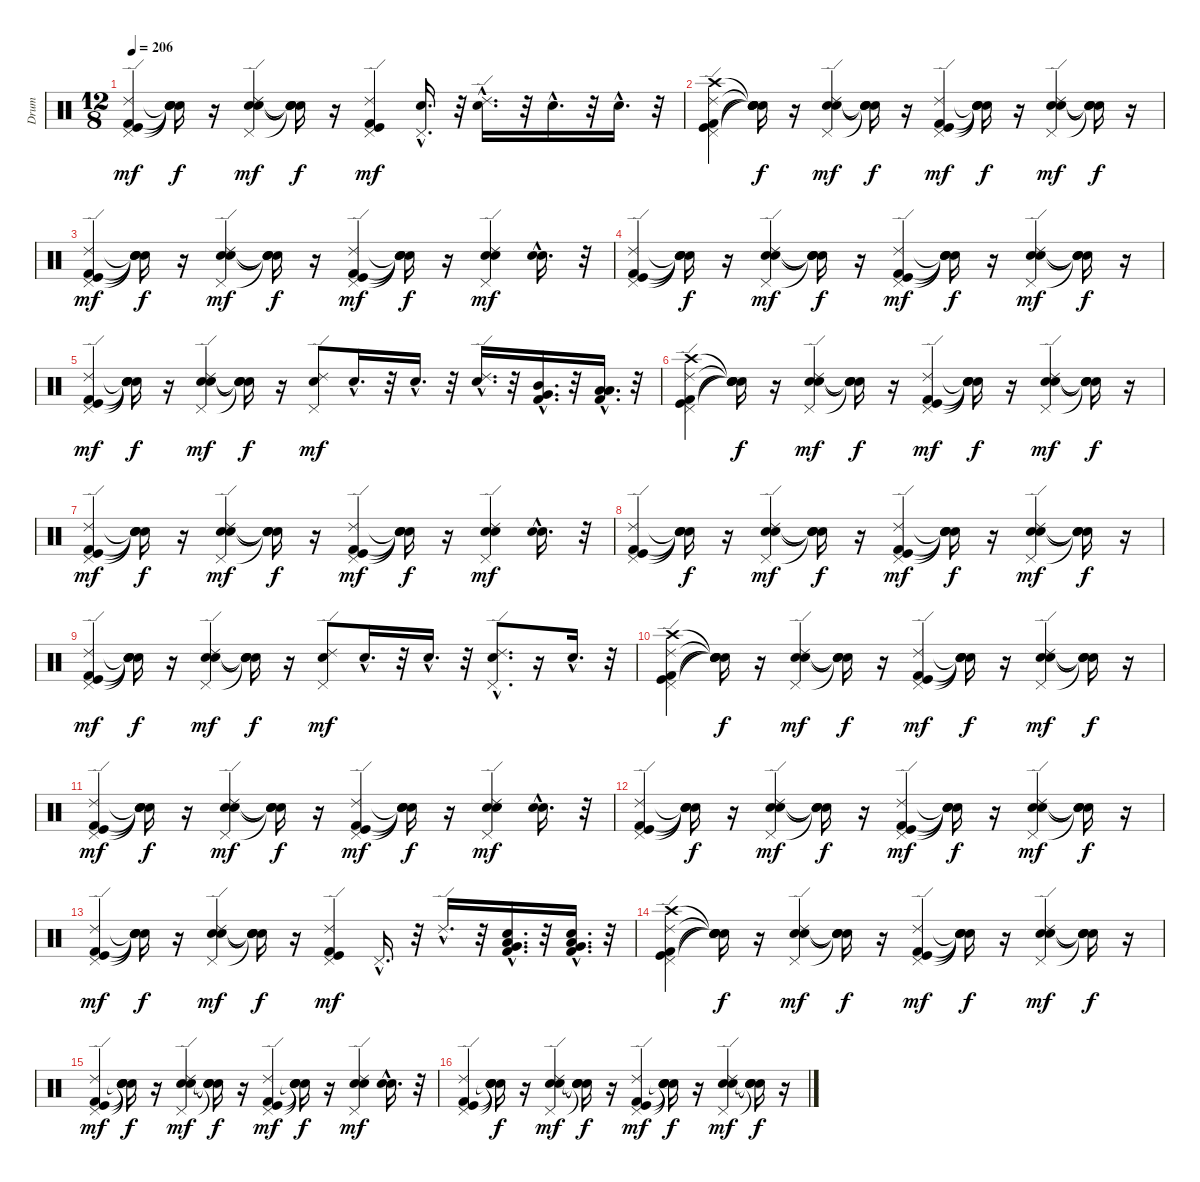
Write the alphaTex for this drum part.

\track ("Drum" "Drum") {instrument percussion}
\staff {score}
\articulation defaults
\ts (12 8)
\tempo 206
\clef neutral
\ks c
("Kick (hit)" "Kick (hit) 2" "Pedal Hi-Hat (hit)" "Ride (edge) 2").4{dy mf} ("Snare (hit)"{t} "Snare (hit)"{t} "Snare (hit)"{t} "Snare (hit)"{t}).16{dy f} r.16 ("Snare (hit) 2" "Pedal Hi-Hat (hit)" "Electric Snare (hit)" "Ride (edge) 2").4{dy mf} ("Snare (hit)"{t} "Snare (hit)"{t} "Snare (hit)"{t} "Snare (hit)"{t}).16{dy f} r.16 ("Kick (hit) 2" "Kick (hit)" "Pedal Hi-Hat (hit)" "Ride (edge) 2").4{dy mf} ("Snare (hit) 2"{hac} "Pedal Hi-Hat (hit)"{hac}).16{d} r.32 ("Snare (hit) 2"{hac} "Ride (edge) 2"{hac}).16{d} r.32 "Snare (hit) 2"{hac}.16{d} r.32 "Snare (hit) 2"{hac}.16{d} r.32 |
("Pedal Hi-Hat (hit)" "Crash high (hit)" "Kick (hit) 2" "Kick (hit)" "Ride (edge) 2").4 ("Snare (hit)"{t} "Snare (hit)"{t} "Snare (hit)"{t} "Snare (hit)"{t} "Snare (hit)"{t}).16{dy f} r.16 ("Electric Snare (hit)" "Snare (hit) 2" "Pedal Hi-Hat (hit)" "Ride (edge) 2").4{dy mf} ("Snare (hit)"{t} "Snare (hit)"{t} "Snare (hit)"{t} "Snare (hit)"{t}).16{dy f} r.16 ("Kick (hit) 2" "Pedal Hi-Hat (hit)" "Kick (hit)" "Ride (edge) 2").4{dy mf} ("Snare (hit)"{t} "Snare (hit)"{t} "Snare (hit)"{t} "Snare (hit)"{t}).16{dy f} r.16 ("Pedal Hi-Hat (hit)" "Electric Snare (hit)" "Snare (hit) 2" "Ride (edge) 2").4{dy mf} ("Snare (hit)"{t} "Snare (hit)"{t} "Snare (hit)"{t} "Snare (hit)"{t}).16{dy f} r.16 |
("Kick (hit) 2" "Kick (hit)" "Pedal Hi-Hat (hit)" "Ride (edge) 2").4{dy mf} ("Snare (hit)"{t} "Snare (hit)"{t} "Snare (hit)"{t} "Snare (hit)"{t}).16{dy f} r.16 ("Pedal Hi-Hat (hit)" "Electric Snare (hit)" "Snare (hit) 2" "Ride (edge) 2").4{dy mf} ("Snare (hit)"{t} "Snare (hit)"{t} "Snare (hit)"{t} "Snare (hit)"{t}).16{dy f} r.16 ("Kick (hit)" "Kick (hit) 2" "Pedal Hi-Hat (hit)" "Ride (edge) 2").4{dy mf} ("Snare (hit)"{t} "Snare (hit)"{t} "Snare (hit)"{t} "Snare (hit)"{t}).16{dy f} r.16 ("Pedal Hi-Hat (hit)" "Snare (hit) 2" "Electric Snare (hit)" "Ride (edge) 2").4{dy mf} ("Snare (hit) 2"{hac} "Electric Snare (hit)"{hac}).16{d} r.32 |
("Pedal Hi-Hat (hit)" "Kick (hit) 2" "Kick (hit)" "Ride (edge) 2").4 ("Snare (hit)"{t} "Snare (hit)"{t} "Snare (hit)"{t} "Snare (hit)"{t}).16{dy f} r.16 ("Snare (hit) 2" "Electric Snare (hit)" "Pedal Hi-Hat (hit)" "Ride (edge) 2").4{dy mf} ("Snare (hit)"{t} "Snare (hit)"{t} "Snare (hit)"{t} "Snare (hit)"{t}).16{dy f} r.16 ("Pedal Hi-Hat (hit)" "Kick (hit)" "Kick (hit) 2" "Ride (edge) 2").4{dy mf} ("Snare (hit)"{t} "Snare (hit)"{t} "Snare (hit)"{t} "Snare (hit)"{t}).16{dy f} r.16 ("Electric Snare (hit)" "Snare (hit) 2" "Pedal Hi-Hat (hit)" "Ride (edge) 2").4{dy mf} ("Snare (hit)"{t} "Snare (hit)"{t} "Snare (hit)"{t} "Snare (hit)"{t}).16{dy f} r.16 |
("Kick (hit)" "Kick (hit) 2" "Pedal Hi-Hat (hit)" "Ride (edge) 2").4{dy mf} ("Snare (hit)"{t} "Snare (hit)"{t} "Snare (hit)"{t} "Snare (hit)"{t}).16{dy f} r.16 ("Snare (hit) 2" "Pedal Hi-Hat (hit)" "Electric Snare (hit)" "Ride (edge) 2").4{dy mf} ("Snare (hit)"{t} "Snare (hit)"{t} "Snare (hit)"{t} "Snare (hit)"{t}).16{dy f} r.16 ("Snare (hit) 2" "Pedal Hi-Hat (hit)" "Ride (edge) 2").8{dy mf} "Snare (hit) 2"{hac}.16{d} r.32 "Snare (hit) 2"{hac}.16{d} r.32 ("Ride (edge) 2"{hac} "Snare (hit) 2"{hac}).16{d} r.32 ("Very Low Tom (hit)"{hac} "Mid Tom (hit)"{hac} "Kick (hit) 2"{hac}).16{d} r.32 ("Low Floor Tom (hit)"{hac} "Low Tom (hit)"{hac} "Kick (hit) 2"{hac}).16{d} r.32 |
("Ride (edge) 2" "Kick (hit)" "Kick (hit) 2" "Crash high (hit)" "Pedal Hi-Hat (hit)").4 ("Snare (hit)"{t} "Snare (hit)"{t} "Snare (hit)"{t} "Snare (hit)"{t} "Snare (hit)"{t}).16{dy f} r.16 ("Ride (edge) 2" "Pedal Hi-Hat (hit)" "Snare (hit) 2" "Electric Snare (hit)").4{dy mf} ("Snare (hit)"{t} "Snare (hit)"{t} "Snare (hit)"{t} "Snare (hit)"{t}).16{dy f} r.16 ("Ride (edge) 2" "Kick (hit)" "Pedal Hi-Hat (hit)" "Kick (hit) 2").4{dy mf} ("Snare (hit)"{t} "Snare (hit)"{t} "Snare (hit)"{t} "Snare (hit)"{t}).16{dy f} r.16 ("Ride (edge) 2" "Snare (hit) 2" "Electric Snare (hit)" "Pedal Hi-Hat (hit)").4{dy mf} ("Snare (hit)"{t} "Snare (hit)"{t} "Snare (hit)"{t} "Snare (hit)"{t}).16{dy f} r.16 |
("Ride (edge) 2" "Pedal Hi-Hat (hit)" "Kick (hit)" "Kick (hit) 2").4{dy mf} ("Snare (hit)"{t} "Snare (hit)"{t} "Snare (hit)"{t} "Snare (hit)"{t}).16{dy f} r.16 ("Ride (edge) 2" "Snare (hit) 2" "Electric Snare (hit)" "Pedal Hi-Hat (hit)").4{dy mf} ("Snare (hit)"{t} "Snare (hit)"{t} "Snare (hit)"{t} "Snare (hit)"{t}).16{dy f} r.16 ("Ride (edge) 2" "Pedal Hi-Hat (hit)" "Kick (hit) 2" "Kick (hit)").4{dy mf} ("Snare (hit)"{t} "Snare (hit)"{t} "Snare (hit)"{t} "Snare (hit)"{t}).16{dy f} r.16 ("Ride (edge) 2" "Electric Snare (hit)" "Snare (hit) 2" "Pedal Hi-Hat (hit)").4{dy mf} ("Electric Snare (hit)"{hac} "Snare (hit) 2"{hac}).16{d} r.32 |
("Ride (edge) 2" "Kick (hit)" "Kick (hit) 2" "Pedal Hi-Hat (hit)").4 ("Snare (hit)"{t} "Snare (hit)"{t} "Snare (hit)"{t} "Snare (hit)"{t}).16{dy f} r.16 ("Ride (edge) 2" "Pedal Hi-Hat (hit)" "Electric Snare (hit)" "Snare (hit) 2").4{dy mf} ("Snare (hit)"{t} "Snare (hit)"{t} "Snare (hit)"{t} "Snare (hit)"{t}).16{dy f} r.16 ("Ride (edge) 2" "Kick (hit) 2" "Kick (hit)" "Pedal Hi-Hat (hit)").4{dy mf} ("Snare (hit)"{t} "Snare (hit)"{t} "Snare (hit)"{t} "Snare (hit)"{t}).16{dy f} r.16 ("Ride (edge) 2" "Pedal Hi-Hat (hit)" "Snare (hit) 2" "Electric Snare (hit)").4{dy mf} ("Snare (hit)"{t} "Snare (hit)"{t} "Snare (hit)"{t} "Snare (hit)"{t}).16{dy f} r.16 |
("Kick (hit) 2" "Pedal Hi-Hat (hit)" "Kick (hit)" "Ride (edge) 2").4{dy mf} ("Snare (hit)"{t} "Snare (hit)"{t} "Snare (hit)"{t} "Snare (hit)"{t}).16{dy f} r.16 ("Pedal Hi-Hat (hit)" "Electric Snare (hit)" "Snare (hit) 2" "Ride (edge) 2").4{dy mf} ("Snare (hit)"{t} "Snare (hit)"{t} "Snare (hit)"{t} "Snare (hit)"{t}).16{dy f} r.16 ("Pedal Hi-Hat (hit)" "Snare (hit) 2" "Ride (edge) 2").8{dy mf} "Snare (hit) 2"{hac}.16{d} r.32 "Snare (hit) 2"{hac}.16{d} r.32 ("Ride (edge) 2"{hac} "Snare (hit) 2"{hac} "Pedal Hi-Hat (hit)"{hac}).8{d} r.16 "Snare (hit) 2"{hac}.16{d} r.32 |
("Pedal Hi-Hat (hit)" "Crash high (hit)" "Kick (hit) 2" "Kick (hit)" "Ride (edge) 2").4 ("Snare (hit)"{t} "Snare (hit)"{t} "Snare (hit)"{t} "Snare (hit)"{t} "Snare (hit)"{t}).16{dy f} r.16 ("Electric Snare (hit)" "Snare (hit) 2" "Pedal Hi-Hat (hit)" "Ride (edge) 2").4{dy mf} ("Snare (hit)"{t} "Snare (hit)"{t} "Snare (hit)"{t} "Snare (hit)"{t}).16{dy f} r.16 ("Kick (hit) 2" "Pedal Hi-Hat (hit)" "Kick (hit)" "Ride (edge) 2").4{dy mf} ("Snare (hit)"{t} "Snare (hit)"{t} "Snare (hit)"{t} "Snare (hit)"{t}).16{dy f} r.16 ("Pedal Hi-Hat (hit)" "Electric Snare (hit)" "Snare (hit) 2" "Ride (edge) 2").4{dy mf} ("Snare (hit)"{t} "Snare (hit)"{t} "Snare (hit)"{t} "Snare (hit)"{t}).16{dy f} r.16 |
("Kick (hit) 2" "Kick (hit)" "Pedal Hi-Hat (hit)" "Ride (edge) 2").4{dy mf} ("Snare (hit)"{t} "Snare (hit)"{t} "Snare (hit)"{t} "Snare (hit)"{t}).16{dy f} r.16 ("Pedal Hi-Hat (hit)" "Electric Snare (hit)" "Snare (hit) 2" "Ride (edge) 2").4{dy mf} ("Snare (hit)"{t} "Snare (hit)"{t} "Snare (hit)"{t} "Snare (hit)"{t}).16{dy f} r.16 ("Kick (hit)" "Kick (hit) 2" "Pedal Hi-Hat (hit)" "Ride (edge) 2").4{dy mf} ("Snare (hit)"{t} "Snare (hit)"{t} "Snare (hit)"{t} "Snare (hit)"{t}).16{dy f} r.16 ("Pedal Hi-Hat (hit)" "Snare (hit) 2" "Electric Snare (hit)" "Ride (edge) 2").4{dy mf} ("Snare (hit) 2"{hac} "Electric Snare (hit)"{hac}).16{d} r.32 |
("Pedal Hi-Hat (hit)" "Kick (hit) 2" "Kick (hit)" "Ride (edge) 2").4 ("Snare (hit)"{t} "Snare (hit)"{t} "Snare (hit)"{t} "Snare (hit)"{t}).16{dy f} r.16 ("Snare (hit) 2" "Electric Snare (hit)" "Pedal Hi-Hat (hit)" "Ride (edge) 2").4{dy mf} ("Snare (hit)"{t} "Snare (hit)"{t} "Snare (hit)"{t} "Snare (hit)"{t}).16{dy f} r.16 ("Pedal Hi-Hat (hit)" "Kick (hit)" "Kick (hit) 2" "Ride (edge) 2").4{dy mf} ("Snare (hit)"{t} "Snare (hit)"{t} "Snare (hit)"{t} "Snare (hit)"{t}).16{dy f} r.16 ("Electric Snare (hit)" "Snare (hit) 2" "Pedal Hi-Hat (hit)" "Ride (edge) 2").4{dy mf} ("Snare (hit)"{t} "Snare (hit)"{t} "Snare (hit)"{t} "Snare (hit)"{t}).16{dy f} r.16 |
("Kick (hit)" "Kick (hit) 2" "Pedal Hi-Hat (hit)" "Ride (edge) 2").4{dy mf} ("Snare (hit)"{t} "Snare (hit)"{t} "Snare (hit)"{t} "Snare (hit)"{t}).16{dy f} r.16 ("Snare (hit) 2" "Pedal Hi-Hat (hit)" "Electric Snare (hit)" "Ride (edge) 2").4{dy mf} ("Snare (hit)"{t} "Snare (hit)"{t} "Snare (hit)"{t} "Snare (hit)"{t}).16{dy f} r.16 ("Kick (hit) 2" "Kick (hit)" "Pedal Hi-Hat (hit)" "Ride (edge) 2").4{dy mf} "Pedal Hi-Hat (hit)"{hac}.16{d} r.32 "Ride (edge) 2"{hac}.16{d} r.32 ("Snare (hit) 2"{hac} "Very Low Tom (hit)"{hac} "Low Tom (hit)"{hac} "Kick (hit) 2"{hac}).16{d} r.32 ("Snare (hit) 2"{hac} "Very Low Tom (hit)"{hac} "Low Tom (hit)"{hac} "Kick (hit) 2"{hac}).16{d} r.32 |
("Pedal Hi-Hat (hit)" "Crash high (hit)" "Kick (hit) 2" "Kick (hit)" "Ride (edge) 2").4 ("Snare (hit)"{t} "Snare (hit)"{t} "Snare (hit)"{t} "Snare (hit)"{t} "Snare (hit)"{t}).16{dy f} r.16 ("Electric Snare (hit)" "Snare (hit) 2" "Pedal Hi-Hat (hit)" "Ride (edge) 2").4{dy mf} ("Snare (hit)"{t} "Snare (hit)"{t} "Snare (hit)"{t} "Snare (hit)"{t}).16{dy f} r.16 ("Kick (hit) 2" "Pedal Hi-Hat (hit)" "Kick (hit)" "Ride (edge) 2").4{dy mf} ("Snare (hit)"{t} "Snare (hit)"{t} "Snare (hit)"{t} "Snare (hit)"{t}).16{dy f} r.16 ("Pedal Hi-Hat (hit)" "Electric Snare (hit)" "Snare (hit) 2" "Ride (edge) 2").4{dy mf} ("Snare (hit)"{t} "Snare (hit)"{t} "Snare (hit)"{t} "Snare (hit)"{t}).16{dy f} r.16 |
("Kick (hit) 2" "Kick (hit)" "Pedal Hi-Hat (hit)" "Ride (edge) 2").4{dy mf} ("Snare (hit)"{t} "Snare (hit)"{t} "Snare (hit)"{t} "Snare (hit)"{t}).16{dy f} r.16 ("Pedal Hi-Hat (hit)" "Electric Snare (hit)" "Snare (hit) 2" "Ride (edge) 2").4{dy mf} ("Snare (hit)"{t} "Snare (hit)"{t} "Snare (hit)"{t} "Snare (hit)"{t}).16{dy f} r.16 ("Kick (hit)" "Kick (hit) 2" "Pedal Hi-Hat (hit)" "Ride (edge) 2").4{dy mf} ("Snare (hit)"{t} "Snare (hit)"{t} "Snare (hit)"{t} "Snare (hit)"{t}).16{dy f} r.16 ("Pedal Hi-Hat (hit)" "Snare (hit) 2" "Electric Snare (hit)" "Ride (edge) 2").4{dy mf} ("Snare (hit) 2"{hac} "Electric Snare (hit)"{hac}).16{d} r.32 |
("Pedal Hi-Hat (hit)" "Kick (hit) 2" "Kick (hit)" "Ride (edge) 2").4 ("Snare (hit)"{t} "Snare (hit)"{t} "Snare (hit)"{t} "Snare (hit)"{t}).16{dy f} r.16 ("Snare (hit) 2" "Electric Snare (hit)" "Pedal Hi-Hat (hit)" "Ride (edge) 2").4{dy mf} ("Snare (hit)"{t} "Snare (hit)"{t} "Snare (hit)"{t} "Snare (hit)"{t}).16{dy f} r.16 ("Pedal Hi-Hat (hit)" "Kick (hit)" "Kick (hit) 2" "Ride (edge) 2").4{dy mf} ("Snare (hit)"{t} "Snare (hit)"{t} "Snare (hit)"{t} "Snare (hit)"{t}).16{dy f} r.16 ("Electric Snare (hit)" "Snare (hit) 2" "Pedal Hi-Hat (hit)" "Ride (edge) 2").4{dy mf} ("Snare (hit)"{t} "Snare (hit)"{t} "Snare (hit)"{t} "Snare (hit)"{t}).16{dy f} r.16
